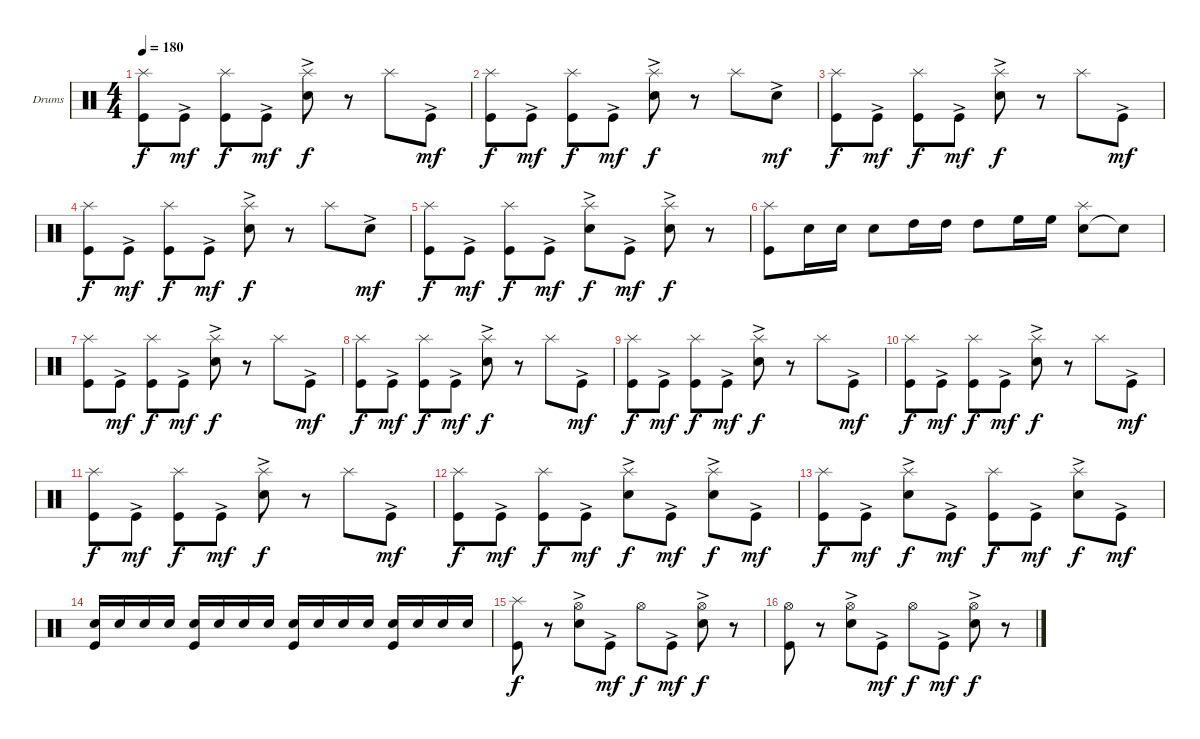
\defaultSystemsLayout 4
\bracketExtendMode groupsimilarinstruments
\firstSystemTrackNameOrientation horizontal
\otherSystemsTrackNameOrientation horizontal
\track ("Drumkit" "Drums") {instrument percussion}
\staff {score}
\articulation defaults
\ts (4 4)
\tempo 180
\clef neutral
\ks c
("Kick (hit)" "Splash (hit)").8{dy f} "Kick (hit)"{ac}.8{dy mf} ("Kick (hit)" "Splash (hit)").8{dy f} "Kick (hit)"{ac}.8{dy mf} ("Snare (hit) 2"{ac} "Splash (hit)").8{dy f} r.8 "Splash (hit)".8 "Kick (hit)"{ac}.8{dy mf} |
("Kick (hit)" "Splash (hit)").8{dy f} "Kick (hit)"{ac}.8{dy mf} ("Kick (hit)" "Splash (hit)").8{dy f} "Kick (hit)"{ac}.8{dy mf} ("Snare (hit) 2"{ac} "Splash (hit)").8{dy f} r.8 "Splash (hit)".8 "Snare (hit) 2"{ac}.8{dy mf} |
("Kick (hit)" "Splash (hit)").8{dy f} "Kick (hit)"{ac}.8{dy mf} ("Kick (hit)" "Splash (hit)").8{dy f} "Kick (hit)"{ac}.8{dy mf} ("Snare (hit) 2"{ac} "Splash (hit)").8{dy f} r.8 "Splash (hit)".8 "Kick (hit)"{ac}.8{dy mf} |
("Kick (hit)" "Splash (hit)").8{dy f} "Kick (hit)"{ac}.8{dy mf} ("Kick (hit)" "Splash (hit)").8{dy f} "Kick (hit)"{ac}.8{dy mf} ("Snare (hit) 2"{ac} "Splash (hit)").8{dy f} r.8 "Splash (hit)".8 "Snare (hit) 2"{ac}.8{dy mf} |
("Kick (hit)" "Splash (hit)").8{dy f} "Kick (hit)"{ac}.8{dy mf} ("Kick (hit)" "Splash (hit)").8{dy f} "Kick (hit)"{ac}.8{dy mf} ("Snare (hit) 2"{ac} "Splash (hit)").8{dy f} "Kick (hit)"{ac}.8{dy mf} ("Snare (hit) 2"{ac} "Splash (hit)").8{dy f} r.8 |
("Kick (hit)" "Splash (hit)").8 "Snare (hit) 2".16 "Snare (hit) 2".16 "Snare (hit) 2".8 "High Tom (hit)".16 "High Tom (hit)".16 "High Tom (hit)".8 "High Floor Tom (hit)".16 "High Floor Tom (hit)".16 ("Snare (hit) 2" "Splash (hit)").8 "Snare (hit) 2"{t}.8 |
("Kick (hit)" "Splash (hit)").8 "Kick (hit)"{ac}.8{dy mf} ("Kick (hit)" "Splash (hit)").8{dy f} "Kick (hit)"{ac}.8{dy mf} ("Snare (hit) 2"{ac} "Splash (hit)").8{dy f} r.8 "Splash (hit)".8 "Kick (hit)"{ac}.8{dy mf} |
("Kick (hit)" "Splash (hit)").8{dy f} "Kick (hit)"{ac}.8{dy mf} ("Kick (hit)" "Splash (hit)").8{dy f} "Kick (hit)"{ac}.8{dy mf} ("Snare (hit) 2"{ac} "Splash (hit)").8{dy f} r.8 "Splash (hit)".8 "Kick (hit)"{ac}.8{dy mf} |
("Kick (hit)" "Splash (hit)").8{dy f} "Kick (hit)"{ac}.8{dy mf} ("Kick (hit)" "Splash (hit)").8{dy f} "Kick (hit)"{ac}.8{dy mf} ("Snare (hit) 2"{ac} "Splash (hit)").8{dy f} r.8 "Splash (hit)".8 "Kick (hit)"{ac}.8{dy mf} |
("Kick (hit)" "Splash (hit)").8{dy f} "Kick (hit)"{ac}.8{dy mf} ("Kick (hit)" "Splash (hit)").8{dy f} "Kick (hit)"{ac}.8{dy mf} ("Snare (hit) 2"{ac} "Splash (hit)").8{dy f} r.8 "Splash (hit)".8 "Kick (hit)"{ac}.8{dy mf} |
("Kick (hit)" "Splash (hit)").8{dy f} "Kick (hit)"{ac}.8{dy mf} ("Kick (hit)" "Splash (hit)").8{dy f} "Kick (hit)"{ac}.8{dy mf} ("Snare (hit) 2"{ac} "Splash (hit)").8{dy f} r.8 "Splash (hit)".8 "Kick (hit)"{ac}.8{dy mf} |
("Kick (hit)" "Splash (hit)").8{dy f} "Kick (hit)"{ac}.8{dy mf} ("Kick (hit)" "Splash (hit)").8{dy f} "Kick (hit)"{ac}.8{dy mf} ("Snare (hit) 2"{ac} "Splash (hit)").8{dy f} "Kick (hit)"{ac}.8{dy mf} ("Snare (hit) 2"{ac} "Splash (hit)").8{dy f} "Kick (hit)"{ac}.8{dy mf} |
("Kick (hit)" "Splash (hit)").8{dy f} "Kick (hit)"{ac}.8{dy mf} ("Splash (hit)" "Snare (hit) 2"{ac}).8{dy f} "Kick (hit)"{ac}.8{dy mf} ("Kick (hit)" "Splash (hit)").8{dy f} "Kick (hit)"{ac}.8{dy mf} ("Snare (hit) 2"{ac} "Splash (hit)").8{dy f} "Kick (hit)"{ac}.8{dy mf} |
("Kick (hit)" "Snare (hit) 2").16 "Snare (hit) 2".16 "Snare (hit) 2".16 "Snare (hit) 2".16 ("Snare (hit) 2" "Kick (hit)").16 "Snare (hit) 2".16 "Snare (hit) 2".16 "Snare (hit) 2".16 ("Snare (hit) 2" "Kick (hit)").16 "Snare (hit) 2".16 "Snare (hit) 2".16 "Snare (hit) 2".16 ("Snare (hit) 2" "Kick (hit)").16 "Snare (hit) 2".16 "Snare (hit) 2".16 "Snare (hit) 2".16 |
("Kick (hit)" "Splash (hit)").8{dy f} r.8 ("Snare (hit) 2"{ac} "Hi-Hat (open)").8 "Kick (hit)"{ac}.8{dy mf} "Hi-Hat (open)".8{dy f} "Kick (hit)"{ac}.8{dy mf} ("Snare (hit) 2"{ac} "Hi-Hat (open)").8{dy f} r.8 |
("Kick (hit)" "Hi-Hat (open)").8 r.8 ("Snare (hit) 2"{ac} "Hi-Hat (open)").8 "Kick (hit)"{ac}.8{dy mf} "Hi-Hat (open)".8{dy f} "Kick (hit)"{ac}.8{dy mf} ("Snare (hit) 2"{ac} "Hi-Hat (open)").8{dy f} r.8
